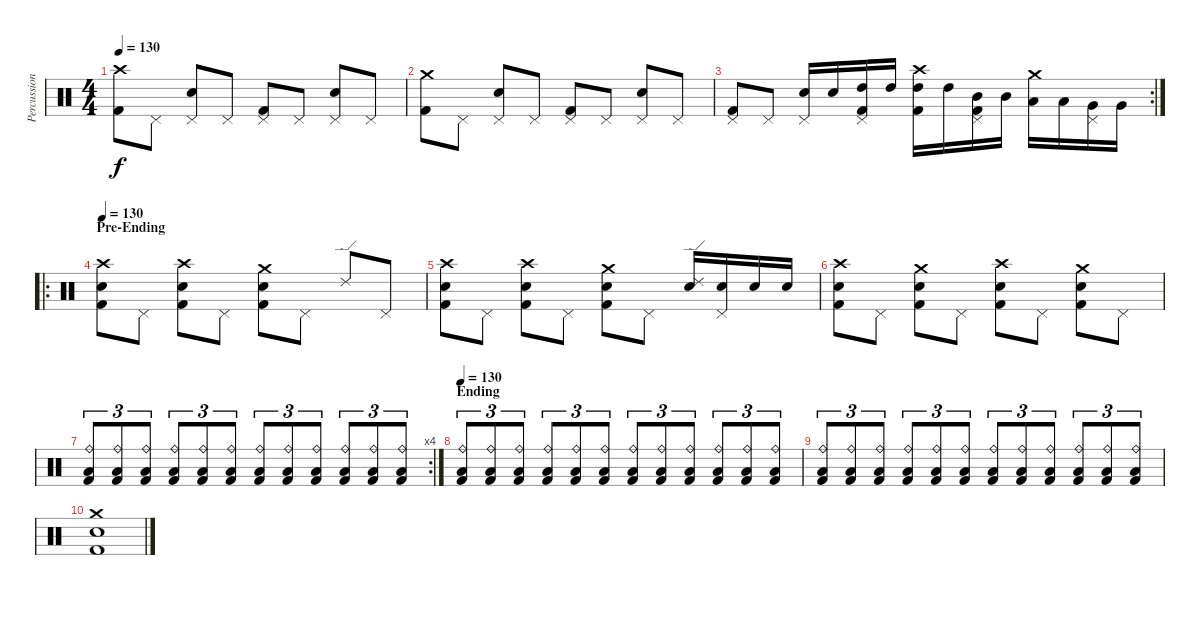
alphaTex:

\track ("Percussion" "Percussion") {instrument percussion}
\staff {score}
\articulation defaults
\ts (4 4)
\tempo 130
\clef neutral
\ks c
("Crash high (hit)" "Kick (hit) 2").8{dy f} "Pedal Hi-Hat (hit)".8 ("Pedal Hi-Hat (hit)" "Snare (hit) 2").8 "Pedal Hi-Hat (hit)".8 ("Pedal Hi-Hat (hit)" "Kick (hit) 2").8 "Pedal Hi-Hat (hit)".8 ("Pedal Hi-Hat (hit)" "Snare (hit) 2").8 "Pedal Hi-Hat (hit)".8 |
("Crash medium (hit)" "Kick (hit) 2").8 "Pedal Hi-Hat (hit)".8 ("Pedal Hi-Hat (hit)" "Snare (hit) 2").8 "Pedal Hi-Hat (hit)".8 ("Pedal Hi-Hat (hit)" "Kick (hit) 2").8 "Pedal Hi-Hat (hit)".8 ("Pedal Hi-Hat (hit)" "Snare (hit) 2").8 "Pedal Hi-Hat (hit)".8 |
\rc 2
("Pedal Hi-Hat (hit)" "Kick (hit) 2").8 "Pedal Hi-Hat (hit)".8 ("Pedal Hi-Hat (hit)" "Snare (hit) 2").16 "Snare (hit) 2".16 ("Pedal Hi-Hat (hit)" "High Tom (hit)" "Kick (hit) 2").16 "High Tom (hit)".16 ("Crash high (hit)" "High Tom (hit)" "Kick (hit) 2").16 "High Tom (hit)".16 ("Pedal Hi-Hat (hit)" "Mid Tom (hit)" "Kick (hit) 2").16 "Mid Tom (hit)".16 ("Crash medium (hit)" "Low Tom (hit)").16 "Low Tom (hit)".16 ("Pedal Hi-Hat (hit)" "Very Low Tom (hit)").16 "Very Low Tom (hit)".16 |
\ro
\section ("" "Pre-Ending")
\tempo 130
("Crash high (hit)" "Snare (hit) 2" "Kick (hit) 2").8 "Pedal Hi-Hat (hit)".8 ("Crash high (hit)" "Snare (hit) 2" "Kick (hit) 2").8 "Pedal Hi-Hat (hit)".8 ("Crash medium (hit)" "Snare (hit) 2" "Kick (hit) 2").8 "Pedal Hi-Hat (hit)".8 "Ride (edge) 2".8 "Pedal Hi-Hat (hit)".8 |
("Crash high (hit)" "Snare (hit) 2" "Kick (hit) 2").8 "Pedal Hi-Hat (hit)".8 ("Crash high (hit)" "Snare (hit) 2" "Kick (hit) 2").8 "Pedal Hi-Hat (hit)".8 ("Crash medium (hit)" "Snare (hit) 2" "Kick (hit) 2").8 "Pedal Hi-Hat (hit)".8 ("Ride (edge) 2" "Snare (hit) 2").16 ("Pedal Hi-Hat (hit)" "Snare (hit) 2").16 "Snare (hit) 2".16 "Snare (hit) 2".16 |
("Crash high (hit)" "Snare (hit) 2" "Kick (hit) 2").8 "Pedal Hi-Hat (hit)".8 ("Crash medium (hit)" "Snare (hit) 2" "Kick (hit) 2").8 "Pedal Hi-Hat (hit)".8 ("Crash high (hit)" "Snare (hit) 2" "Kick (hit) 2").8 "Pedal Hi-Hat (hit)".8 ("Crash medium (hit)" "Snare (hit) 2" "Kick (hit) 2").8 "Pedal Hi-Hat (hit)".8 |
\rc 4
("Ride (bell)" "Low Floor Tom (hit)" "Kick (hit) 2").8{tu (3 2)} ("Ride (bell)" "Low Floor Tom (hit)" "Kick (hit) 2").8{tu (3 2)} ("Ride (bell)" "Low Floor Tom (hit)" "Kick (hit) 2").8{tu (3 2)} ("Ride (bell)" "Low Floor Tom (hit)" "Kick (hit) 2").8{tu (3 2)} ("Ride (bell)" "Low Floor Tom (hit)" "Kick (hit) 2").8{tu (3 2)} ("Ride (bell)" "Low Floor Tom (hit)" "Kick (hit) 2").8{tu (3 2)} ("Ride (bell)" "Low Floor Tom (hit)" "Kick (hit) 2").8{tu (3 2)} ("Ride (bell)" "Low Floor Tom (hit)" "Kick (hit) 2").8{tu (3 2)} ("Ride (bell)" "Low Floor Tom (hit)" "Kick (hit) 2").8{tu (3 2)} ("Ride (bell)" "Low Floor Tom (hit)" "Kick (hit) 2").8{tu (3 2)} ("Ride (bell)" "Low Floor Tom (hit)" "Kick (hit) 2").8{tu (3 2)} ("Ride (bell)" "Low Floor Tom (hit)" "Kick (hit) 2").8{tu (3 2)} |
\section ("" "Ending")
\tempo 130
("Ride (bell)" "Low Floor Tom (hit)" "Kick (hit) 2").8{tu (3 2)} ("Ride (bell)" "Low Floor Tom (hit)" "Kick (hit) 2").8{tu (3 2)} ("Ride (bell)" "Low Floor Tom (hit)" "Kick (hit) 2").8{tu (3 2)} ("Ride (bell)" "Low Floor Tom (hit)" "Kick (hit) 2").8{tu (3 2)} ("Ride (bell)" "Low Floor Tom (hit)" "Kick (hit) 2").8{tu (3 2)} ("Ride (bell)" "Low Floor Tom (hit)" "Kick (hit) 2").8{tu (3 2)} ("Ride (bell)" "Low Floor Tom (hit)" "Kick (hit) 2").8{tu (3 2)} ("Ride (bell)" "Low Floor Tom (hit)" "Kick (hit) 2").8{tu (3 2)} ("Ride (bell)" "Low Floor Tom (hit)" "Kick (hit) 2").8{tu (3 2)} ("Ride (bell)" "Low Floor Tom (hit)" "Kick (hit) 2").8{tu (3 2)} ("Ride (bell)" "Low Floor Tom (hit)" "Kick (hit) 2").8{tu (3 2)} ("Ride (bell)" "Low Floor Tom (hit)" "Kick (hit) 2").8{tu (3 2)} |
("Ride (bell)" "Low Floor Tom (hit)" "Kick (hit) 2").8{tu (3 2)} ("Ride (bell)" "Low Floor Tom (hit)" "Kick (hit) 2").8{tu (3 2)} ("Ride (bell)" "Low Floor Tom (hit)" "Kick (hit) 2").8{tu (3 2)} ("Ride (bell)" "Low Floor Tom (hit)" "Kick (hit) 2").8{tu (3 2)} ("Ride (bell)" "Low Floor Tom (hit)" "Kick (hit) 2").8{tu (3 2)} ("Ride (bell)" "Low Floor Tom (hit)" "Kick (hit) 2").8{tu (3 2)} ("Ride (bell)" "Low Floor Tom (hit)" "Kick (hit) 2").8{tu (3 2)} ("Ride (bell)" "Low Floor Tom (hit)" "Kick (hit) 2").8{tu (3 2)} ("Ride (bell)" "Low Floor Tom (hit)" "Kick (hit) 2").8{tu (3 2)} ("Ride (bell)" "Low Floor Tom (hit)" "Kick (hit) 2").8{tu (3 2)} ("Ride (bell)" "Low Floor Tom (hit)" "Kick (hit) 2").8{tu (3 2)} ("Ride (bell)" "Low Floor Tom (hit)" "Kick (hit) 2").8{tu (3 2)} |
("Crash medium (hit)" "Snare (hit) 2" "Kick (hit) 2").1
